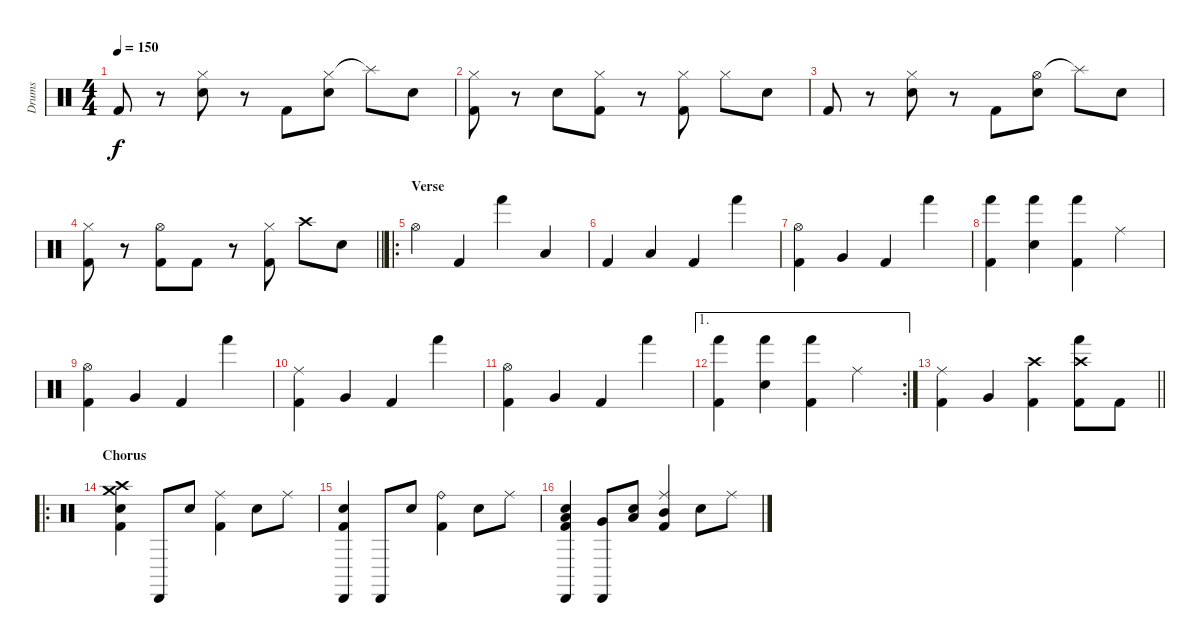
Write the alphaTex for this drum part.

\track ("Drums" "Drums") {instrument percussion}
\staff {score}
\articulation defaults
\ts (4 4)
\tempo 150
\clef neutral
\ks c "Kick (hit) 2".8{dy f}
r.8 ("Hi-Hat (closed)" "Electric Snare (hit)").8 r.8 "Kick (hit) 2".8 ("Hi-Hat (closed)" "Electric Snare (hit)").8 "Splash (hit)"{t}.8 "Electric Snare (hit)".8 |
("Hi-Hat (closed)" "Kick (hit) 2").8 r.8 "Electric Snare (hit)".8 ("Hi-Hat (closed)" "Kick (hit) 2").8 r.8 ("Hi-Hat (closed)" "Kick (hit) 2").8 "Hi-Hat (closed)".8 "Electric Snare (hit)".8 |
"Kick (hit) 2".8 r.8 ("Hi-Hat (closed)" "Electric Snare (hit)").8 r.8 "Kick (hit) 2".8 ("Hi-Hat (open)" "Electric Snare (hit)").8 "Splash (hit)"{t}.8 "Electric Snare (hit)".8 |
\barLineRight lightlight
("Hi-Hat (closed)" "Kick (hit) 2").8 r.8 ("Hi-Hat (open)" "Kick (hit) 2").8 "Kick (hit) 2".8 r.8 ("Hi-Hat (closed)" "Kick (hit) 2").8 "Crash high (hit)".8 "Electric Snare (hit)".8 |
\ro
\section ("" "Verse")
"Hi-Hat (open)".4 "Kick (hit) 2".4 "Hand (hit)".4 "Low Floor Tom (hit)".4 |
"Kick (hit) 2".4 "Low Floor Tom (hit)".4 "Kick (hit) 2".4 "Hand (hit)".4 |
("Hi-Hat (open)" "Kick (hit) 2").4 "Very Low Tom (hit)".4 "Kick (hit) 2".4 "Hand (hit)".4 |
("Hand (hit)" "Kick (hit) 2").4 ("Hand (hit)" "Electric Snare (hit)").4 ("Hand (hit)" "Kick (hit) 2").4 "Ride (middle)".4 |
("Hi-Hat (open)" "Kick (hit) 2").4 "Very Low Tom (hit)".4 "Kick (hit) 2".4 "Hand (hit)".4 |
("Ride (middle)" "Kick (hit) 2").4 "Very Low Tom (hit)".4 "Kick (hit) 2".4 "Hand (hit)".4 |
("Hi-Hat (open)" "Kick (hit) 2").4 "Very Low Tom (hit)".4 "Kick (hit) 2".4 "Hand (hit)".4 |
\ae 1
\rc 2
("Hand (hit)" "Kick (hit) 2").4 ("Hand (hit)" "Electric Snare (hit)").4 ("Hand (hit)" "Kick (hit) 2").4 "Ride (middle)".4 |
\barLineRight lightlight
("Ride (middle)" "Kick (hit) 2").4 "Very Low Tom (hit)".4 ("Crash high (hit)" "Kick (hit) 2").4 ("Crash high (hit)" "Hand (hit)" "Kick (hit) 2").8 "Kick (hit) 2".8 |
\ro
\section ("" "Chorus")
("Crash medium (hit)" "Crash high (hit)" "Electric Snare (hit)" "Kick (hit) 2").4 "Cabasa (hit)".8 "Electric Snare (hit)".8 ("Ride (middle)" "Kick (hit) 2").4 "Electric Snare (hit)".8 "Ride (middle)".8 |
("Cabasa (hit)" "Electric Snare (hit)" "Kick (hit) 2").4 "Cabasa (hit)".8 "Electric Snare (hit)".8 ("Ride (bell)" "Kick (hit) 2").4 "Electric Snare (hit)".8 "Ride (middle)".8 |
("Cabasa (hit)" "Low Floor Tom (hit)" "Electric Snare (hit)" "Kick (hit) 2").4 ("Cabasa (hit)" "Very Low Tom (hit)").8 ("Electric Snare (hit)" "Low Tom (hit)").8 ("Ride (middle)" "Mid Tom (hit)" "Kick (hit) 2").4 "Electric Snare (hit)".8 "Ride (middle)".8
